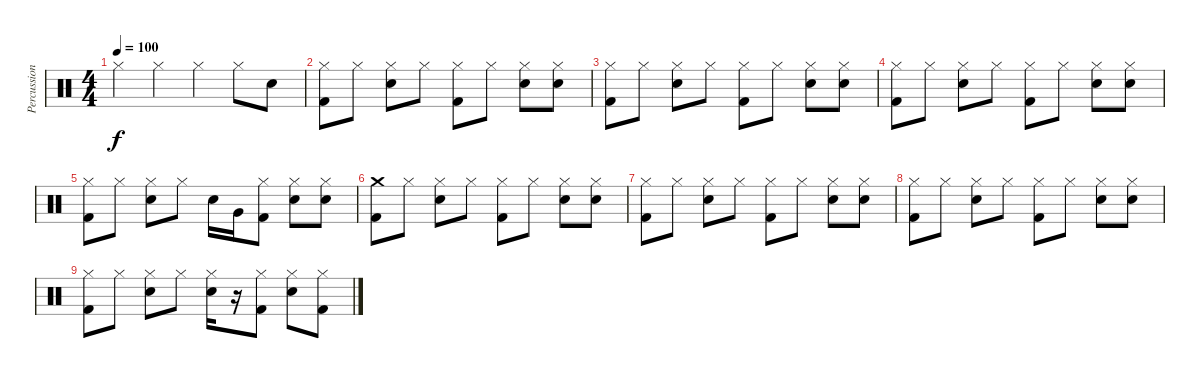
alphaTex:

\track ("Percussion" "Percussion") {instrument percussion}
\staff {score}
\articulation defaults
\ts (4 4)
\tempo 100
\clef neutral
\ks c "Hi-Hat (closed)".4{dy f} "Hi-Hat (closed)".4 "Hi-Hat (closed)".4 "Hi-Hat (closed)".8 "Snare (hit) 2".8
|
("Hi-Hat (closed)" "Kick (hit) 2").8 "Hi-Hat (closed)".8 ("Hi-Hat (closed)" "Snare (hit) 2").8 "Hi-Hat (closed)".8 ("Hi-Hat (closed)" "Kick (hit) 2").8 "Hi-Hat (closed)".8 ("Hi-Hat (closed)" "Snare (hit) 2").8 ("Hi-Hat (closed)" "Snare (hit) 2").8 |
("Hi-Hat (closed)" "Kick (hit) 2").8 "Hi-Hat (closed)".8 ("Hi-Hat (closed)" "Snare (hit) 2").8 "Hi-Hat (closed)".8 ("Hi-Hat (closed)" "Kick (hit) 2").8 "Hi-Hat (closed)".8 ("Hi-Hat (closed)" "Snare (hit) 2").8 ("Hi-Hat (closed)" "Snare (hit) 2").8 |
("Hi-Hat (closed)" "Kick (hit) 2").8 "Hi-Hat (closed)".8 ("Hi-Hat (closed)" "Snare (hit) 2").8 "Hi-Hat (closed)".8 ("Hi-Hat (closed)" "Kick (hit) 2").8 "Hi-Hat (closed)".8 ("Hi-Hat (closed)" "Snare (hit) 2").8 ("Hi-Hat (closed)" "Snare (hit) 2").8 |
("Hi-Hat (closed)" "Kick (hit) 2").8 "Hi-Hat (closed)".8 ("Hi-Hat (closed)" "Snare (hit) 2").8 "Hi-Hat (closed)".8 "Snare (hit) 2".16 "Very Low Tom (hit)".16 ("Hi-Hat (closed)" "Kick (hit) 2").8 ("Hi-Hat (closed)" "Snare (hit) 2").8 ("Hi-Hat (closed)" "Snare (hit) 2").8 |
("Crash medium (hit)" "Kick (hit) 2").8 "Hi-Hat (closed)".8 ("Hi-Hat (closed)" "Snare (hit) 2").8 "Hi-Hat (closed)".8 ("Hi-Hat (closed)" "Kick (hit) 2").8 "Hi-Hat (closed)".8 ("Hi-Hat (closed)" "Snare (hit) 2").8 ("Hi-Hat (closed)" "Snare (hit) 2").8 |
("Hi-Hat (closed)" "Kick (hit) 2").8 "Hi-Hat (closed)".8 ("Hi-Hat (closed)" "Snare (hit) 2").8 "Hi-Hat (closed)".8 ("Hi-Hat (closed)" "Kick (hit) 2").8 "Hi-Hat (closed)".8 ("Hi-Hat (closed)" "Snare (hit) 2").8 ("Hi-Hat (closed)" "Snare (hit) 2").8 |
("Hi-Hat (closed)" "Kick (hit) 2").8 "Hi-Hat (closed)".8 ("Hi-Hat (closed)" "Snare (hit) 2").8 "Hi-Hat (closed)".8 ("Hi-Hat (closed)" "Kick (hit) 2").8 "Hi-Hat (closed)".8 ("Hi-Hat (closed)" "Snare (hit) 2").8 ("Hi-Hat (closed)" "Snare (hit) 2").8 |
("Hi-Hat (closed)" "Kick (hit) 2").8 "Hi-Hat (closed)".8 ("Hi-Hat (closed)" "Snare (hit) 2").8 "Hi-Hat (closed)".8 ("Hi-Hat (closed)" "Snare (hit) 2").16 r.16 ("Hi-Hat (closed)" "Kick (hit) 2").8 ("Hi-Hat (closed)" "Snare (hit) 2").8 ("Hi-Hat (closed)" "Kick (hit) 2").8
